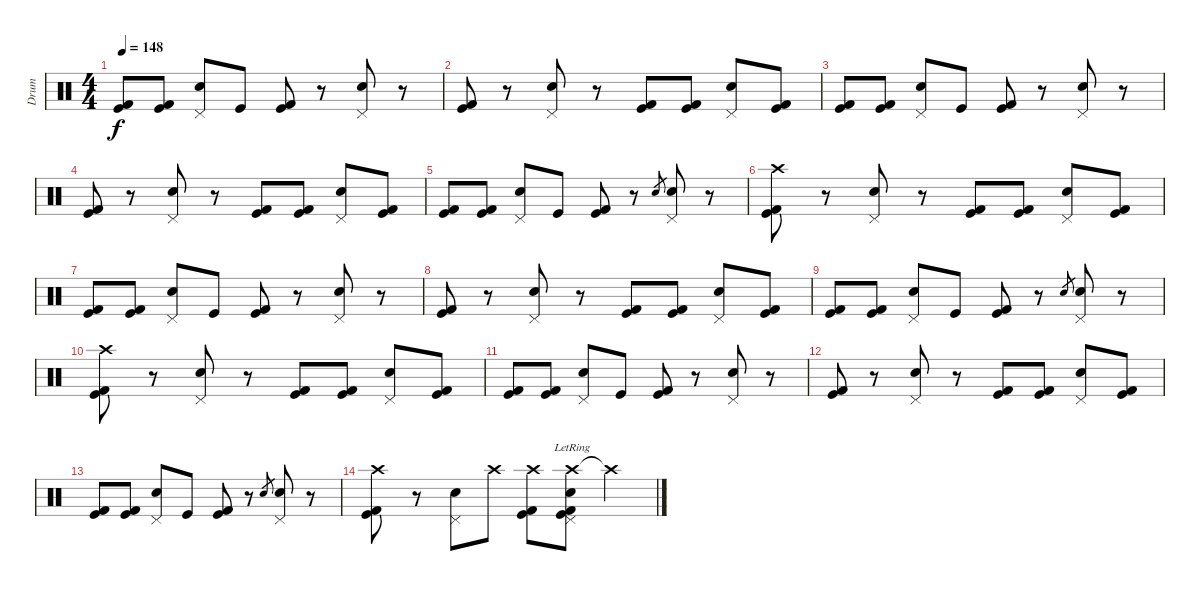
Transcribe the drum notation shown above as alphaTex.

\track ("Drum" "Drum") {instrument percussion}
\staff {score}
\articulation defaults
\ts (4 4)
\tempo 148
\clef neutral
\ks c
("Kick (hit)" "Kick (hit) 2").8{dy f} ("Kick (hit)" "Kick (hit) 2").8 ("Pedal Hi-Hat (hit)" "Snare (hit) 2").8 "Kick (hit)".8 ("Kick (hit)" "Kick (hit) 2").8 r.8 ("Pedal Hi-Hat (hit)" "Snare (hit) 2").8 r.8 |
("Kick (hit)" "Kick (hit) 2").8 r.8 ("Pedal Hi-Hat (hit)" "Snare (hit) 2").8 r.8 ("Kick (hit)" "Kick (hit) 2").8 ("Kick (hit)" "Kick (hit) 2").8 ("Pedal Hi-Hat (hit)" "Snare (hit) 2").8 ("Kick (hit)" "Kick (hit) 2").8 |
("Kick (hit)" "Kick (hit) 2").8 ("Kick (hit)" "Kick (hit) 2").8 ("Pedal Hi-Hat (hit)" "Snare (hit) 2").8 "Kick (hit)".8 ("Kick (hit)" "Kick (hit) 2").8 r.8 ("Pedal Hi-Hat (hit)" "Snare (hit) 2").8 r.8 |
("Kick (hit)" "Kick (hit) 2").8 r.8 ("Pedal Hi-Hat (hit)" "Snare (hit) 2").8 r.8 ("Kick (hit)" "Kick (hit) 2").8 ("Kick (hit)" "Kick (hit) 2").8 ("Pedal Hi-Hat (hit)" "Snare (hit) 2").8 ("Kick (hit)" "Kick (hit) 2").8 |
("Kick (hit)" "Kick (hit) 2").8 ("Kick (hit)" "Kick (hit) 2").8 ("Pedal Hi-Hat (hit)" "Snare (hit) 2").8 "Kick (hit)".8 ("Kick (hit)" "Kick (hit) 2").8 r.8 "Snare (hit) 2".8{gr} ("Pedal Hi-Hat (hit)" "Snare (hit) 2").8 r.8 |
("Crash high (hit)" "Kick (hit)" "Kick (hit) 2").8 r.8 ("Pedal Hi-Hat (hit)" "Snare (hit) 2").8 r.8 ("Kick (hit)" "Kick (hit) 2").8 ("Kick (hit)" "Kick (hit) 2").8 ("Pedal Hi-Hat (hit)" "Snare (hit) 2").8 ("Kick (hit)" "Kick (hit) 2").8 |
("Kick (hit)" "Kick (hit) 2").8 ("Kick (hit)" "Kick (hit) 2").8 ("Pedal Hi-Hat (hit)" "Snare (hit) 2").8 "Kick (hit)".8 ("Kick (hit)" "Kick (hit) 2").8 r.8 ("Pedal Hi-Hat (hit)" "Snare (hit) 2").8 r.8 |
("Kick (hit)" "Kick (hit) 2").8 r.8 ("Pedal Hi-Hat (hit)" "Snare (hit) 2").8 r.8 ("Kick (hit)" "Kick (hit) 2").8 ("Kick (hit)" "Kick (hit) 2").8 ("Pedal Hi-Hat (hit)" "Snare (hit) 2").8 ("Kick (hit)" "Kick (hit) 2").8 |
("Kick (hit)" "Kick (hit) 2").8 ("Kick (hit)" "Kick (hit) 2").8 ("Pedal Hi-Hat (hit)" "Snare (hit) 2").8 "Kick (hit)".8 ("Kick (hit)" "Kick (hit) 2").8 r.8 "Snare (hit) 2".8{gr} ("Pedal Hi-Hat (hit)" "Snare (hit) 2").8 r.8 |
("Crash high (hit)" "Kick (hit)" "Kick (hit) 2").8 r.8 ("Pedal Hi-Hat (hit)" "Snare (hit) 2").8 r.8 ("Kick (hit)" "Kick (hit) 2").8 ("Kick (hit)" "Kick (hit) 2").8 ("Pedal Hi-Hat (hit)" "Snare (hit) 2").8 ("Kick (hit)" "Kick (hit) 2").8 |
("Kick (hit)" "Kick (hit) 2").8 ("Kick (hit)" "Kick (hit) 2").8 ("Pedal Hi-Hat (hit)" "Snare (hit) 2").8 "Kick (hit)".8 ("Kick (hit)" "Kick (hit) 2").8 r.8 ("Pedal Hi-Hat (hit)" "Snare (hit) 2").8 r.8 |
("Kick (hit)" "Kick (hit) 2").8 r.8 ("Pedal Hi-Hat (hit)" "Snare (hit) 2").8 r.8 ("Kick (hit)" "Kick (hit) 2").8 ("Kick (hit)" "Kick (hit) 2").8 ("Pedal Hi-Hat (hit)" "Snare (hit) 2").8 ("Kick (hit)" "Kick (hit) 2").8 |
("Kick (hit)" "Kick (hit) 2").8 ("Kick (hit)" "Kick (hit) 2").8 ("Pedal Hi-Hat (hit)" "Snare (hit) 2").8 "Kick (hit)".8 ("Kick (hit)" "Kick (hit) 2").8 r.8 "Snare (hit) 2".8{gr} ("Pedal Hi-Hat (hit)" "Snare (hit) 2").8 r.8 |
("Crash high (hit)" "Kick (hit)" "Kick (hit) 2").8 r.8 ("Pedal Hi-Hat (hit)" "Snare (hit) 2").8 "Crash high (hit)".8 ("Crash high (hit)" "Kick (hit)" "Kick (hit) 2").8 ("Crash high (hit)"{lr} "Pedal Hi-Hat (hit)" "Snare (hit) 2" "Kick (hit)" "Kick (hit) 2").8 "Crash high (hit)"{t}.4
